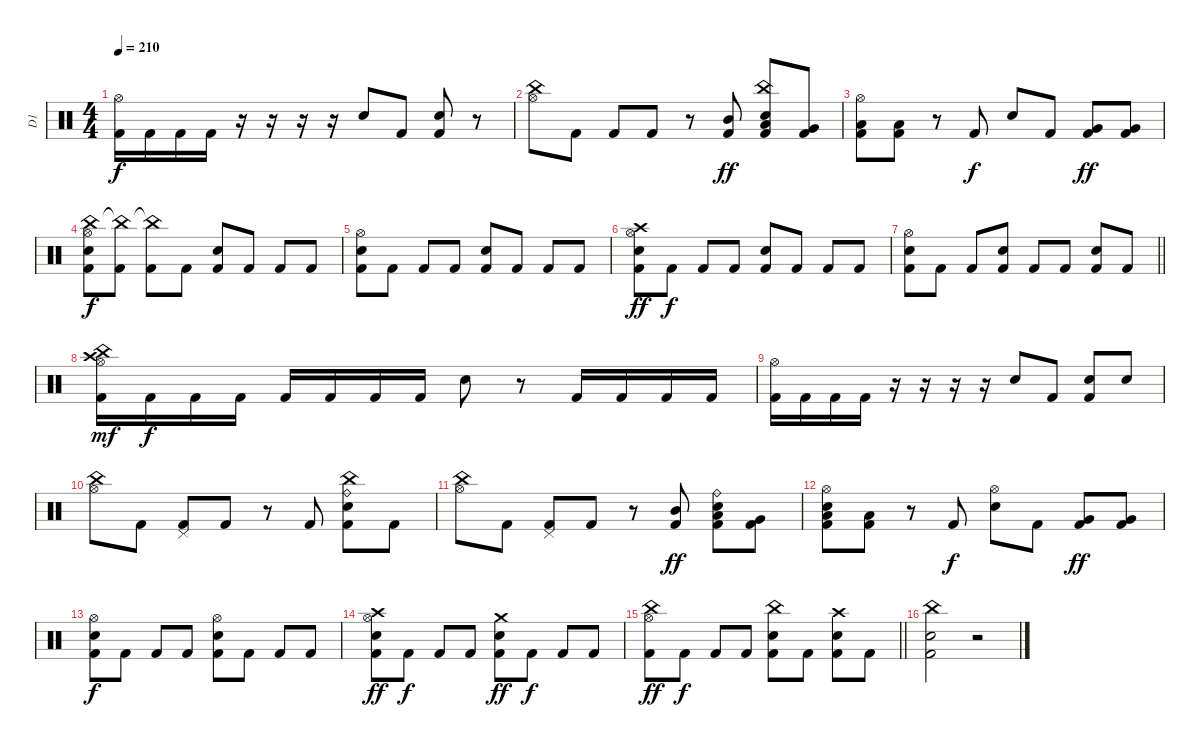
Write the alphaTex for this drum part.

\track ("D1" "D1") {instrument percussion}
\staff {score}
\articulation defaults
\ts (4 4)
\tempo 210
\clef neutral
\ks c
("Hi-Hat (open)" "Kick (hit) 2").16{dy f} "Kick (hit) 2".16 "Kick (hit) 2".16 "Kick (hit) 2".16 r.16 r.16 r.16 r.16 "Snare (hit) 2".8 "Kick (hit) 2".8 ("Snare (hit) 2" "Kick (hit) 2").8 r.8 |
("China (hit)" "Hi-Hat (open)").8 "Kick (hit) 2".8 "Kick (hit) 2".8 "Kick (hit) 2".8 r.8 ("Mid Tom (hit)" "Kick (hit) 2").8{dy ff} ("Low Tom (hit)" "China (hit)" "Snare (hit) 2" "Kick (hit) 2").8 ("Very Low Tom (hit)" "Kick (hit) 2").8 |
("Low Tom (hit)" "Hi-Hat (open)" "Kick (hit) 2").8 ("Low Tom (hit)" "Kick (hit) 2").8 r.8 "Kick (hit) 2".8{dy f} "Snare (hit) 2".8 "Kick (hit) 2".8 ("Very Low Tom (hit)" "Kick (hit) 2").8{dy ff} ("Very Low Tom (hit)" "Kick (hit) 2").8 |
("China (hit)" "Hi-Hat (open)" "Snare (hit) 2" "Kick (hit) 2").8{dy f} ("China (hit)"{t} "Kick (hit) 2").8 ("China (hit)"{t} "Kick (hit) 2").8 "Kick (hit) 2".8 ("Snare (hit) 2" "Kick (hit) 2").8 "Kick (hit) 2".8 "Kick (hit) 2".8 "Kick (hit) 2".8 |
("Hi-Hat (open)" "Snare (hit) 2" "Kick (hit) 2").8 "Kick (hit) 2".8 "Kick (hit) 2".8 "Kick (hit) 2".8 ("Snare (hit) 2" "Kick (hit) 2").8 "Kick (hit) 2".8 "Kick (hit) 2".8 "Kick (hit) 2".8 |
("Crash high (hit)" "Hi-Hat (open)" "Snare (hit) 2" "Kick (hit) 2").8{dy ff} "Kick (hit) 2".8{dy f} "Kick (hit) 2".8 "Kick (hit) 2".8 ("Snare (hit) 2" "Kick (hit) 2").8 "Kick (hit) 2".8 "Kick (hit) 2".8 "Kick (hit) 2".8 |
\barLineRight lightlight
("Hi-Hat (open)" "Snare (hit) 2" "Kick (hit) 2").8 "Kick (hit) 2".8 "Kick (hit) 2".8 ("Snare (hit) 2" "Kick (hit) 2").8 "Kick (hit) 2".8 "Kick (hit) 2".8 ("Snare (hit) 2" "Kick (hit) 2").8 "Kick (hit) 2".8 |
\section ("" "")
("China (hit)" "Hi-Hat (open)" "Crash high (hit)" "Kick (hit) 2").16{dy mf} "Kick (hit) 2".16{dy f} "Kick (hit) 2".16 "Kick (hit) 2".16 "Kick (hit) 2".16 "Kick (hit) 2".16 "Kick (hit) 2".16 "Kick (hit) 2".16 "Snare (hit) 2".8 r.8 "Kick (hit) 2".16 "Kick (hit) 2".16 "Kick (hit) 2".16 "Kick (hit) 2".16 |
("Hi-Hat (open)" "Kick (hit) 2").16 "Kick (hit) 2".16 "Kick (hit) 2".16 "Kick (hit) 2".16 r.16 r.16 r.16 r.16 "Snare (hit) 2".8 "Kick (hit) 2".8 ("Snare (hit) 2" "Kick (hit) 2").8 "Snare (hit) 2".8 |
("China (hit)" "Hi-Hat (open)").8 "Kick (hit) 2".8 ("Pedal Hi-Hat (hit)" "Kick (hit) 2").8 "Kick (hit) 2".8 r.8 "Kick (hit) 2".8 ("Ride (bell)" "China (hit)" "Snare (hit) 2" "Kick (hit) 2").8 "Kick (hit) 2".8 |
("China (hit)" "Hi-Hat (open)").8 "Kick (hit) 2".8 ("Pedal Hi-Hat (hit)" "Kick (hit) 2").8 "Kick (hit) 2".8 r.8 ("Mid Tom (hit)" "Kick (hit) 2").8{dy ff} ("Low Tom (hit)" "Ride (bell)" "Snare (hit) 2" "Kick (hit) 2").8 ("Very Low Tom (hit)" "Kick (hit) 2").8 |
("Low Tom (hit)" "Hi-Hat (open)" "Snare (hit) 2" "Kick (hit) 2").8 ("Low Tom (hit)" "Kick (hit) 2").8 r.8 "Kick (hit) 2".8{dy f} ("Hi-Hat (open)" "Snare (hit) 2").8 "Kick (hit) 2".8 ("Very Low Tom (hit)" "Kick (hit) 2").8{dy ff} ("Very Low Tom (hit)" "Kick (hit) 2").8 |
("Hi-Hat (open)" "Snare (hit) 2" "Kick (hit) 2").8{dy f} "Kick (hit) 2".8 "Kick (hit) 2".8 "Kick (hit) 2".8 ("Hi-Hat (open)" "Snare (hit) 2" "Kick (hit) 2").8 "Kick (hit) 2".8 "Kick (hit) 2".8 "Kick (hit) 2".8 |
("Crash high (hit)" "Hi-Hat (open)" "Snare (hit) 2" "Kick (hit) 2").8{dy ff} "Kick (hit) 2".8{dy f} "Kick (hit) 2".8 "Kick (hit) 2".8 ("Crash medium (hit)" "Snare (hit) 2" "Kick (hit) 2").8{dy ff} "Kick (hit) 2".8{dy f} "Kick (hit) 2".8 "Kick (hit) 2".8 |
\barLineRight lightlight
("China (hit)" "Hi-Hat (open)" "Kick (hit) 2").8{dy ff} "Kick (hit) 2".8{dy f} "Kick (hit) 2".8 "Kick (hit) 2".8 ("China (hit)" "Snare (hit) 2" "Kick (hit) 2").8 "Kick (hit) 2".8 ("Crash high (hit)" "Snare (hit) 2" "Kick (hit) 2").8 "Kick (hit) 2".8 |
\section ("" "")
("China (hit)" "Kick (hit) 2" "Snare (hit) 2").2 r.2
